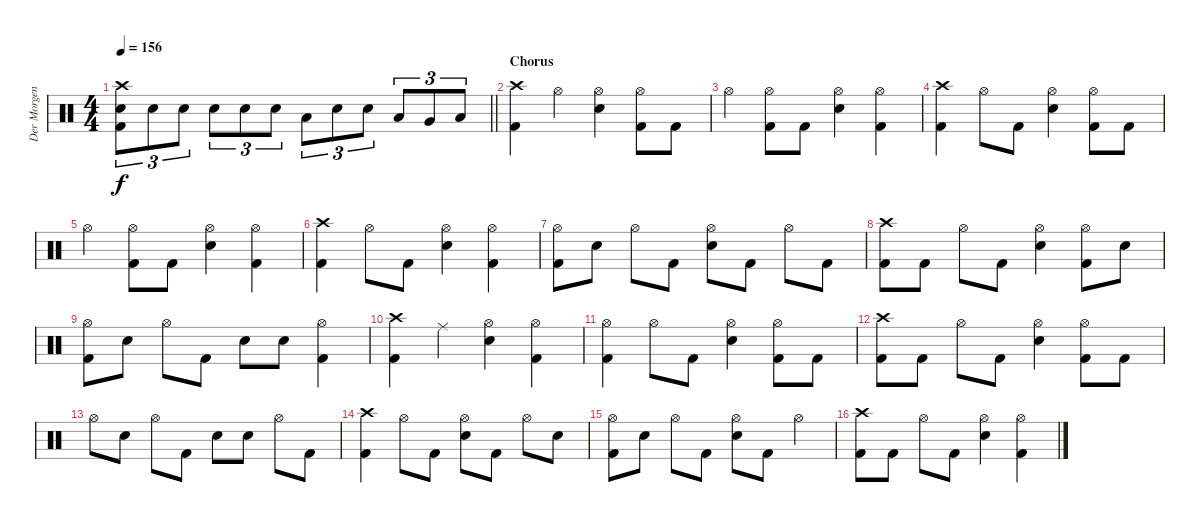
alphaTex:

\track ("Der Morgenstern" "Der Morgen") {instrument percussion}
\staff {score}
\articulation defaults
\ts (4 4)
\tempo 156
\clef neutral
\barLineRight lightlight
\ks c
("Crash high (hit)" "Electric Snare (hit)" "Kick (hit) 2").8{tu (3 2) dy f} "Electric Snare (hit)".8{tu (3 2)} "Electric Snare (hit)".8{tu (3 2)} "Electric Snare (hit)".8{tu (3 2)} "Electric Snare (hit)".8{tu (3 2)} "Electric Snare (hit)".8{tu (3 2)} "Low Tom (hit)".8{tu (3 2)} "Electric Snare (hit)".8{tu (3 2)} "Electric Snare (hit)".8{tu (3 2)} "Low Tom (hit)".8{tu (3 2)} "Very Low Tom (hit)".8{tu (3 2)} "Low Floor Tom (hit)".8{tu (3 2)} |
\section ("" "Chorus")
("Crash high (hit)" "Kick (hit) 2").4 "Hi-Hat (open)".4 ("Hi-Hat (open)" "Electric Snare (hit)").4 ("Hi-Hat (open)" "Kick (hit) 2").8 "Kick (hit) 2".8 |
"Hi-Hat (open)".4 ("Hi-Hat (open)" "Kick (hit) 2").8 "Kick (hit) 2".8 ("Hi-Hat (open)" "Electric Snare (hit)").4 ("Hi-Hat (open)" "Kick (hit) 2").4 |
("Crash high (hit)" "Kick (hit) 2").4 "Hi-Hat (open)".8 "Kick (hit) 2".8 ("Hi-Hat (open)" "Electric Snare (hit)").4 ("Hi-Hat (open)" "Kick (hit) 2").8 "Kick (hit) 2".8 |
"Hi-Hat (open)".4 ("Hi-Hat (open)" "Kick (hit) 2").8 "Kick (hit) 2".8 ("Hi-Hat (open)" "Electric Snare (hit)").4 ("Hi-Hat (open)" "Kick (hit) 2").4 |
("Crash high (hit)" "Kick (hit) 2").4 "Hi-Hat (open)".8 "Kick (hit) 2".8 ("Hi-Hat (open)" "Electric Snare (hit)").4 ("Hi-Hat (open)" "Kick (hit) 2").4 |
("Hi-Hat (open)" "Kick (hit) 2").8 "Electric Snare (hit)".8 "Hi-Hat (open)".8 "Kick (hit) 2".8 ("Hi-Hat (open)" "Electric Snare (hit)").8 "Kick (hit) 2".8 "Hi-Hat (open)".8 "Kick (hit) 2".8 |
("Crash high (hit)" "Kick (hit) 2").8 "Kick (hit) 2".8 "Hi-Hat (open)".8 "Kick (hit) 2".8 ("Hi-Hat (open)" "Electric Snare (hit)").4 ("Hi-Hat (open)" "Kick (hit) 2").8 "Electric Snare (hit)".8 |
("Hi-Hat (open)" "Kick (hit) 2").8 "Electric Snare (hit)".8 "Hi-Hat (open)".8 "Kick (hit) 2".8 "Electric Snare (hit)".8 "Electric Snare (hit)".8 ("Hi-Hat (open)" "Kick (hit) 2").4 |
("Crash high (hit)" "Kick (hit) 2").4 "Ride (middle)".4 ("Hi-Hat (open)" "Electric Snare (hit)").4 ("Hi-Hat (open)" "Kick (hit) 2").4 |
("Hi-Hat (open)" "Kick (hit) 2").4 "Hi-Hat (open)".8 "Kick (hit) 2".8 ("Hi-Hat (open)" "Electric Snare (hit)").4 ("Hi-Hat (open)" "Kick (hit) 2").8 "Kick (hit) 2".8 |
("Crash high (hit)" "Kick (hit) 2").8 "Kick (hit) 2".8 "Hi-Hat (open)".8 "Kick (hit) 2".8 ("Hi-Hat (open)" "Electric Snare (hit)").4 ("Hi-Hat (open)" "Kick (hit) 2").8 "Kick (hit) 2".8 |
"Hi-Hat (open)".8 "Electric Snare (hit)".8 "Hi-Hat (open)".8 "Kick (hit) 2".8 "Electric Snare (hit)".8 "Electric Snare (hit)".8 "Hi-Hat (open)".8 "Kick (hit) 2".8 |
("Crash high (hit)" "Kick (hit) 2").4 "Hi-Hat (open)".8 "Kick (hit) 2".8 ("Hi-Hat (open)" "Electric Snare (hit)").8 "Kick (hit) 2".8 "Hi-Hat (open)".8 "Electric Snare (hit)".8 |
("Hi-Hat (open)" "Kick (hit) 2").8 "Electric Snare (hit)".8 "Hi-Hat (open)".8 "Kick (hit) 2".8 ("Hi-Hat (open)" "Electric Snare (hit)").8 "Kick (hit) 2".8 "Hi-Hat (open)".4 |
("Crash high (hit)" "Kick (hit) 2").8 "Kick (hit) 2".8 "Hi-Hat (open)".8 "Kick (hit) 2".8 ("Hi-Hat (open)" "Electric Snare (hit)").4 ("Hi-Hat (open)" "Kick (hit) 2").4
